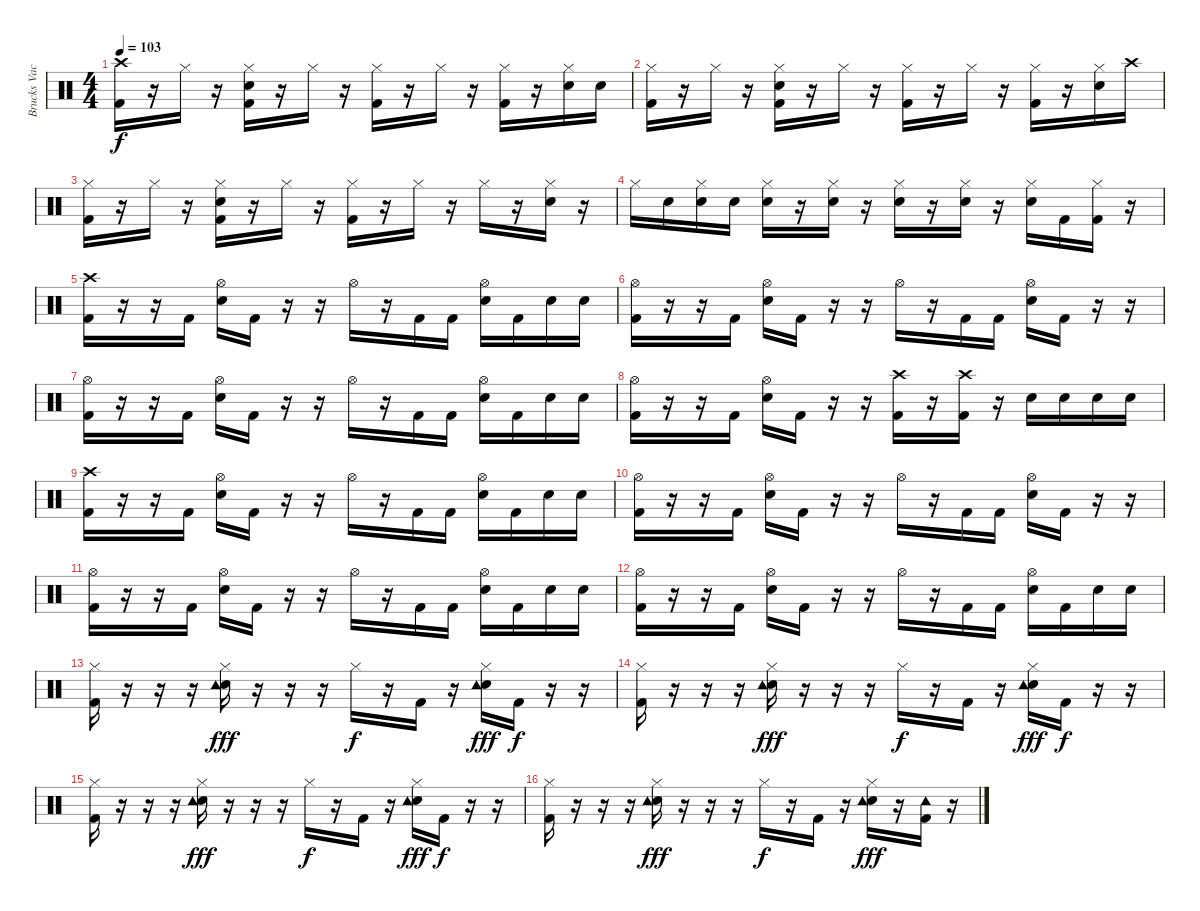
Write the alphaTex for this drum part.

\track ("Brucks Vackerman" "Brucks Vac") {instrument percussion}
\staff {score}
\articulation defaults
\ts (4 4)
\tempo 103
\clef neutral
\ks c
("Crash high (hit)" "Kick (hit) 2").16{dy f} r.16 "Hi-Hat (closed)".16 r.16 ("Hi-Hat (closed)" "Electric Snare (hit)" "Kick (hit) 2").16 r.16 "Hi-Hat (closed)".16 r.16 ("Hi-Hat (closed)" "Kick (hit) 2").16 r.16 "Hi-Hat (closed)".16 r.16 ("Hi-Hat (closed)" "Kick (hit) 2").16 r.16 ("Hi-Hat (closed)" "Electric Snare (hit)").16 "Electric Snare (hit)".16 |
("Hi-Hat (closed)" "Kick (hit) 2").16 r.16 "Hi-Hat (closed)".16 r.16 ("Hi-Hat (closed)" "Electric Snare (hit)" "Kick (hit) 2").16 r.16 "Hi-Hat (closed)".16 r.16 ("Hi-Hat (closed)" "Kick (hit) 2").16 r.16 "Hi-Hat (closed)".16 r.16 ("Hi-Hat (closed)" "Kick (hit) 2").16 r.16 ("Hi-Hat (closed)" "Electric Snare (hit)").16 "Crash high (hit)".16 |
("Hi-Hat (closed)" "Kick (hit) 2").16 r.16 "Hi-Hat (closed)".16 r.16 ("Hi-Hat (closed)" "Electric Snare (hit)" "Kick (hit) 2").16 r.16 "Hi-Hat (closed)".16 r.16 ("Hi-Hat (closed)" "Kick (hit) 2").16 r.16 "Hi-Hat (closed)".16 r.16 "Hi-Hat (closed)".16 r.16 ("Hi-Hat (closed)" "Electric Snare (hit)").16 r.16 |
"Hi-Hat (closed)".16 "Electric Snare (hit)".16 ("Hi-Hat (closed)" "Electric Snare (hit)").16 "Electric Snare (hit)".16 ("Hi-Hat (closed)" "Electric Snare (hit)").16 r.16 ("Hi-Hat (closed)" "Electric Snare (hit)").16 r.16 ("Hi-Hat (closed)" "Electric Snare (hit)").16 r.16 ("Hi-Hat (closed)" "Electric Snare (hit)").16 r.16 ("Hi-Hat (closed)" "Electric Snare (hit)").16 "Kick (hit) 2".16 ("Hi-Hat (closed)" "Kick (hit) 2").16 r.16 |
("Crash high (hit)" "Kick (hit) 2").16 r.16 r.16 "Kick (hit) 2".16 ("Hi-Hat (open)" "Electric Snare (hit)").16 "Kick (hit) 2".16 r.16 r.16 "Hi-Hat (open)".16 r.16 "Kick (hit) 2".16 "Kick (hit) 2".16 ("Hi-Hat (open)" "Electric Snare (hit)").16 "Kick (hit) 2".16 "Electric Snare (hit)".16 "Electric Snare (hit)".16 |
("Hi-Hat (open)" "Kick (hit) 2").16 r.16 r.16 "Kick (hit) 2".16 ("Hi-Hat (open)" "Electric Snare (hit)").16 "Kick (hit) 2".16 r.16 r.16 "Hi-Hat (open)".16 r.16 "Kick (hit) 2".16 "Kick (hit) 2".16 ("Hi-Hat (open)" "Electric Snare (hit)").16 "Kick (hit) 2".16 r.16 r.16 |
("Hi-Hat (open)" "Kick (hit) 2").16 r.16 r.16 "Kick (hit) 2".16 ("Hi-Hat (open)" "Electric Snare (hit)").16 "Kick (hit) 2".16 r.16 r.16 "Hi-Hat (open)".16 r.16 "Kick (hit) 2".16 "Kick (hit) 2".16 ("Hi-Hat (open)" "Electric Snare (hit)").16 "Kick (hit) 2".16 "Electric Snare (hit)".16 "Electric Snare (hit)".16 |
("Hi-Hat (open)" "Kick (hit) 2").16 r.16 r.16 "Kick (hit) 2".16 ("Hi-Hat (open)" "Electric Snare (hit)").16 "Kick (hit) 2".16 r.16 r.16 ("Crash high (hit)" "Kick (hit) 2").16 r.16 ("Crash high (hit)" "Kick (hit) 2").16 r.16 "Electric Snare (hit)".16 "Electric Snare (hit)".16 "Electric Snare (hit)".16 "Electric Snare (hit)".16 |
("Crash high (hit)" "Kick (hit) 2").16 r.16 r.16 "Kick (hit) 2".16 ("Hi-Hat (open)" "Electric Snare (hit)").16 "Kick (hit) 2".16 r.16 r.16 "Hi-Hat (open)".16 r.16 "Kick (hit) 2".16 "Kick (hit) 2".16 ("Hi-Hat (open)" "Electric Snare (hit)").16 "Kick (hit) 2".16 "Electric Snare (hit)".16 "Electric Snare (hit)".16 |
("Hi-Hat (open)" "Kick (hit) 2").16 r.16 r.16 "Kick (hit) 2".16 ("Hi-Hat (open)" "Electric Snare (hit)").16 "Kick (hit) 2".16 r.16 r.16 "Hi-Hat (open)".16 r.16 "Kick (hit) 2".16 "Kick (hit) 2".16 ("Hi-Hat (open)" "Electric Snare (hit)").16 "Kick (hit) 2".16 r.16 r.16 |
("Hi-Hat (open)" "Kick (hit) 2").16 r.16 r.16 "Kick (hit) 2".16 ("Hi-Hat (open)" "Electric Snare (hit)").16 "Kick (hit) 2".16 r.16 r.16 "Hi-Hat (open)".16 r.16 "Kick (hit) 2".16 "Kick (hit) 2".16 ("Hi-Hat (open)" "Electric Snare (hit)").16 "Kick (hit) 2".16 "Electric Snare (hit)".16 "Electric Snare (hit)".16 |
("Hi-Hat (open)" "Kick (hit) 2").16 r.16 r.16 "Kick (hit) 2".16 ("Hi-Hat (open)" "Electric Snare (hit)").16 "Kick (hit) 2".16 r.16 r.16 "Hi-Hat (open)".16 r.16 "Kick (hit) 2".16 "Kick (hit) 2".16 ("Hi-Hat (open)" "Electric Snare (hit)").16 "Kick (hit) 2".16 "Electric Snare (hit)".16 "Electric Snare (hit)".16 |
("Hi-Hat (closed)" "Kick (hit) 2").16 r.16 r.16 r.16 ("Hi-Hat (closed)" "Electric Snare (hit)" "Tambourine (hit)").16{dy fff} r.16 r.16 r.16 "Hi-Hat (closed)".16{dy f} r.16 "Kick (hit) 2".16 r.16 ("Hi-Hat (closed)" "Electric Snare (hit)" "Tambourine (hit)").16{dy fff} "Kick (hit) 2".16{dy f} r.16 r.16 |
("Hi-Hat (closed)" "Kick (hit) 2").16 r.16 r.16 r.16 ("Hi-Hat (closed)" "Electric Snare (hit)" "Tambourine (hit)").16{dy fff} r.16 r.16 r.16 "Hi-Hat (closed)".16{dy f} r.16 "Kick (hit) 2".16 r.16 ("Hi-Hat (closed)" "Electric Snare (hit)" "Tambourine (hit)").16{dy fff} "Kick (hit) 2".16{dy f} r.16 r.16 |
("Hi-Hat (closed)" "Kick (hit) 2").16 r.16 r.16 r.16 ("Hi-Hat (closed)" "Electric Snare (hit)" "Tambourine (hit)").16{dy fff} r.16 r.16 r.16 "Hi-Hat (closed)".16{dy f} r.16 "Kick (hit) 2".16 r.16 ("Hi-Hat (closed)" "Electric Snare (hit)" "Tambourine (hit)").16{dy fff} "Kick (hit) 2".16{dy f} r.16 r.16 |
("Hi-Hat (closed)" "Kick (hit) 2").16 r.16 r.16 r.16 ("Hi-Hat (closed)" "Electric Snare (hit)" "Tambourine (hit)").16{dy fff} r.16 r.16 r.16 "Hi-Hat (closed)".16{dy f} r.16 "Kick (hit) 2".16 r.16 ("Hi-Hat (closed)" "Electric Snare (hit)" "Tambourine (hit)").16{dy fff} r.16 ("Tambourine (hit)" "Kick (hit) 2").16 r.16
